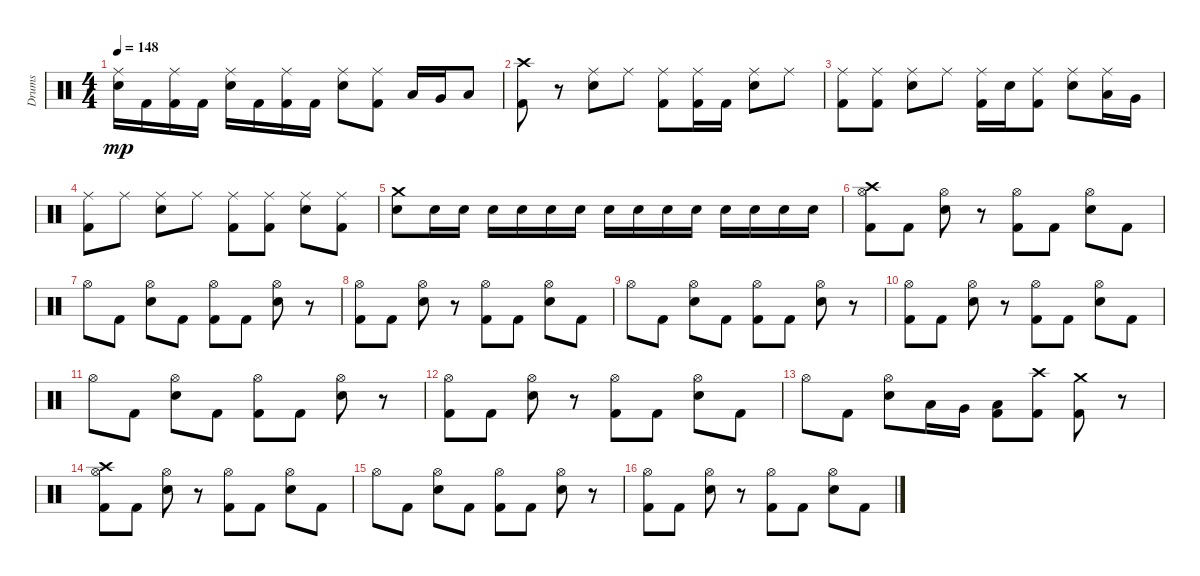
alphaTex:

\track ("Drums" "Drums") {instrument percussion}
\staff {score}
\articulation defaults
\ts (4 4)
\tempo 148
\clef neutral
\ks c
("Snare (hit) 2" "Ride (middle)").16{dy mp} "Kick (hit) 2".16 ("Ride (middle)" "Kick (hit) 2").16 "Kick (hit) 2".16 ("Snare (hit) 2" "Ride (middle)").16 "Kick (hit) 2".16 ("Ride (middle)" "Kick (hit) 2").16 "Kick (hit) 2".16 ("Ride (middle)" "Snare (hit) 2").8 ("Kick (hit) 2" "Ride (middle)").8 "Low Tom (hit)".16 "Very Low Tom (hit)".16 "Low Floor Tom (hit)".8 |
("Crash high (hit)" "Kick (hit) 2").8 r.8 ("Ride (middle)" "Snare (hit) 2").8 "Ride (middle)".8 ("Ride (middle)" "Kick (hit) 2").8 ("Kick (hit) 2" "Ride (middle)").16 "Kick (hit) 2".16 ("Ride (middle)" "Snare (hit) 2").8 "Ride (middle)".8 |
("Ride (middle)" "Kick (hit) 2").8 ("Kick (hit) 2" "Ride (middle)").8 ("Snare (hit) 2" "Ride (middle)").8 "Ride (middle)".8 ("Kick (hit) 2" "Ride (middle)").16 "Snare (hit) 2".16 ("Kick (hit) 2" "Ride (middle)").8 ("Ride (middle)" "Snare (hit) 2").8 ("Ride (middle)" "Low Tom (hit)").16 "Very Low Tom (hit)".16 |
("Kick (hit) 2" "Ride (middle)").8 "Ride (middle)".8 ("Ride (middle)" "Snare (hit) 2").8 "Ride (middle)".8 ("Kick (hit) 2" "Ride (middle)").8 ("Ride (middle)" "Kick (hit) 2").8 ("Snare (hit) 2" "Ride (middle)").8 ("Kick (hit) 2" "Ride (middle)").8 |
("Crash medium (hit)" "Snare (hit) 2").8 "Snare (hit) 2".16 "Snare (hit) 2".16 "Snare (hit) 2".16 "Snare (hit) 2".16 "Snare (hit) 2".16 "Snare (hit) 2".16 "Snare (hit) 2".16 "Snare (hit) 2".16 "Snare (hit) 2".16 "Snare (hit) 2".16 "Snare (hit) 2".16 "Snare (hit) 2".16 "Snare (hit) 2".16 "Snare (hit) 2".16 |
("Hi-Hat (open)" "Kick (hit) 2" "Crash high (hit)").8 "Kick (hit) 2".8 ("Hi-Hat (open)" "Snare (hit) 2").8 r.8 ("Kick (hit) 2" "Hi-Hat (open)").8 "Kick (hit) 2".8 ("Snare (hit) 2" "Hi-Hat (open)").8 "Kick (hit) 2".8 |
"Hi-Hat (open)".8 "Kick (hit) 2".8 ("Snare (hit) 2" "Hi-Hat (open)").8 "Kick (hit) 2".8 ("Hi-Hat (open)" "Kick (hit) 2").8 "Kick (hit) 2".8 ("Snare (hit) 2" "Hi-Hat (open)").8 r.8 |
("Kick (hit) 2" "Hi-Hat (open)").8 "Kick (hit) 2".8 ("Hi-Hat (open)" "Snare (hit) 2").8 r.8 ("Hi-Hat (open)" "Kick (hit) 2").8 "Kick (hit) 2".8 ("Hi-Hat (open)" "Snare (hit) 2").8 "Kick (hit) 2".8 |
"Hi-Hat (open)".8 "Kick (hit) 2".8 ("Hi-Hat (open)" "Snare (hit) 2").8 "Kick (hit) 2".8 ("Hi-Hat (open)" "Kick (hit) 2").8 "Kick (hit) 2".8 ("Snare (hit) 2" "Hi-Hat (open)").8 r.8 |
("Kick (hit) 2" "Hi-Hat (open)").8 "Kick (hit) 2".8 ("Hi-Hat (open)" "Snare (hit) 2").8 r.8 ("Kick (hit) 2" "Hi-Hat (open)").8 "Kick (hit) 2".8 ("Snare (hit) 2" "Hi-Hat (open)").8 "Kick (hit) 2".8 |
"Hi-Hat (open)".8 "Kick (hit) 2".8 ("Hi-Hat (open)" "Snare (hit) 2").8 "Kick (hit) 2".8 ("Hi-Hat (open)" "Kick (hit) 2").8 "Kick (hit) 2".8 ("Snare (hit) 2" "Hi-Hat (open)").8 r.8 |
("Kick (hit) 2" "Hi-Hat (open)").8 "Kick (hit) 2".8 ("Snare (hit) 2" "Hi-Hat (open)").8 r.8 ("Kick (hit) 2" "Hi-Hat (open)").8 "Kick (hit) 2".8 ("Hi-Hat (open)" "Snare (hit) 2").8 "Kick (hit) 2".8 |
"Hi-Hat (open)".8 "Kick (hit) 2".8 ("Snare (hit) 2" "Hi-Hat (open)").8 "Low Tom (hit)".16 "Very Low Tom (hit)".16 ("Kick (hit) 2" "Low Floor Tom (hit)").8 ("Crash high (hit)" "Kick (hit) 2").8 ("Kick (hit) 2" "Crash medium (hit)").8 r.8 |
("Crash high (hit)" "Kick (hit) 2" "Hi-Hat (open)").8 "Kick (hit) 2".8 ("Hi-Hat (open)" "Snare (hit) 2").8 r.8 ("Hi-Hat (open)" "Kick (hit) 2").8 "Kick (hit) 2".8 ("Hi-Hat (open)" "Snare (hit) 2").8 "Kick (hit) 2".8 |
"Hi-Hat (open)".8 "Kick (hit) 2".8 ("Snare (hit) 2" "Hi-Hat (open)").8 "Kick (hit) 2".8 ("Hi-Hat (open)" "Kick (hit) 2").8 "Kick (hit) 2".8 ("Snare (hit) 2" "Hi-Hat (open)").8 r.8 |
("Kick (hit) 2" "Hi-Hat (open)").8 "Kick (hit) 2".8 ("Snare (hit) 2" "Hi-Hat (open)").8 r.8 ("Hi-Hat (open)" "Kick (hit) 2").8 "Kick (hit) 2".8 ("Snare (hit) 2" "Hi-Hat (open)").8 "Kick (hit) 2".8
